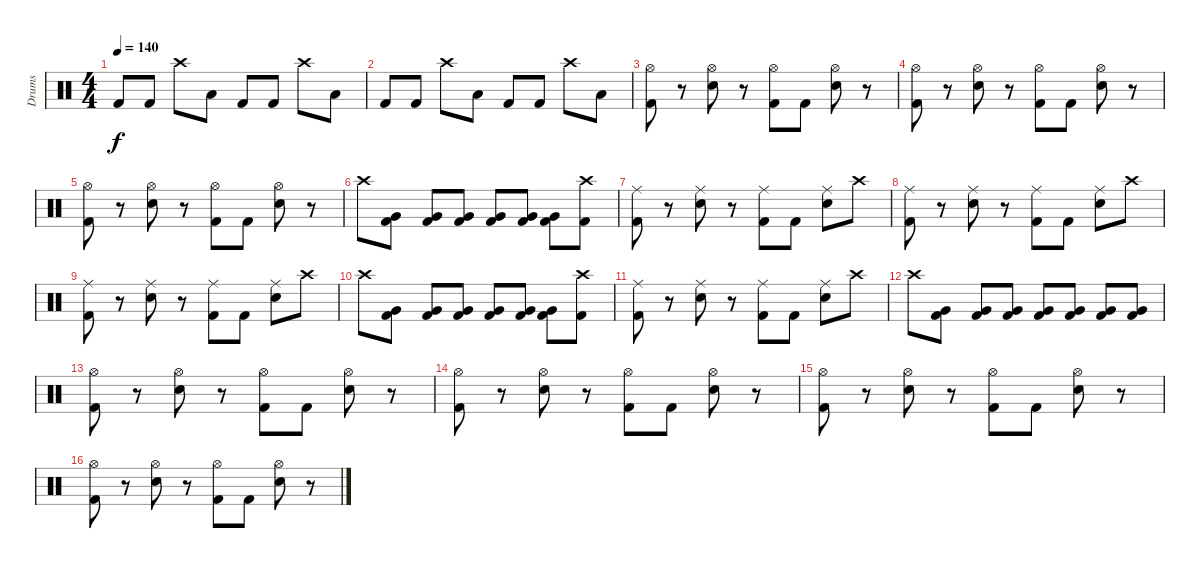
\track ("Drums" "Drums") {instrument percussion}
\staff {score}
\articulation defaults
\ts (4 4)
\tempo 140
\clef neutral
\ks c "Kick (hit) 2".8{dy f} "Kick (hit) 2".8 "Crash high (hit)".8 "Low Tom (hit)".8 "Kick (hit) 2".8 "Kick (hit) 2".8 "Crash high (hit)".8 "Low Tom (hit)".8
|
"Kick (hit) 2".8 "Kick (hit) 2".8 "Crash high (hit)".8 "Low Tom (hit)".8 "Kick (hit) 2".8 "Kick (hit) 2".8 "Crash high (hit)".8 "Low Tom (hit)".8 |
("Hi-Hat (open)" "Kick (hit) 2").8 r.8 ("Hi-Hat (open)" "Snare (hit) 2").8 r.8 ("Hi-Hat (open)" "Kick (hit) 2").8 "Kick (hit) 2".8 ("Hi-Hat (open)" "Snare (hit) 2").8 r.8 |
("Hi-Hat (open)" "Kick (hit) 2").8 r.8 ("Hi-Hat (open)" "Snare (hit) 2").8 r.8 ("Hi-Hat (open)" "Kick (hit) 2").8 "Kick (hit) 2".8 ("Hi-Hat (open)" "Snare (hit) 2").8 r.8 |
("Hi-Hat (open)" "Kick (hit) 2").8 r.8 ("Hi-Hat (open)" "Snare (hit) 2").8 r.8 ("Hi-Hat (open)" "Kick (hit) 2").8 "Kick (hit) 2".8 ("Hi-Hat (open)" "Snare (hit) 2").8 r.8 |
"Crash high (hit)".8 ("Very Low Tom (hit)" "Kick (hit) 2").8 ("Very Low Tom (hit)" "Kick (hit) 2").8 ("Very Low Tom (hit)" "Kick (hit) 2").8 ("Very Low Tom (hit)" "Kick (hit) 2").8 ("Very Low Tom (hit)" "Kick (hit) 2").8 ("Very Low Tom (hit)" "Kick (hit) 2").8 ("Crash high (hit)" "Kick (hit) 2").8 |
("Ride (middle)" "Kick (hit) 2").8 r.8 ("Ride (middle)" "Snare (hit) 2").8 r.8 ("Ride (middle)" "Kick (hit) 2").8 "Kick (hit) 2".8 ("Ride (middle)" "Snare (hit) 2").8 "Crash high (hit)".8 |
("Ride (middle)" "Kick (hit) 2").8 r.8 ("Ride (middle)" "Snare (hit) 2").8 r.8 ("Ride (middle)" "Kick (hit) 2").8 "Kick (hit) 2".8 ("Ride (middle)" "Snare (hit) 2").8 "Crash high (hit)".8 |
("Ride (middle)" "Kick (hit) 2").8 r.8 ("Ride (middle)" "Snare (hit) 2").8 r.8 ("Ride (middle)" "Kick (hit) 2").8 "Kick (hit) 2".8 ("Ride (middle)" "Snare (hit) 2").8 "Crash high (hit)".8 |
"Crash high (hit)".8 ("Very Low Tom (hit)" "Kick (hit) 2").8 ("Very Low Tom (hit)" "Kick (hit) 2").8 ("Very Low Tom (hit)" "Kick (hit) 2").8 ("Very Low Tom (hit)" "Kick (hit) 2").8 ("Very Low Tom (hit)" "Kick (hit) 2").8 ("Very Low Tom (hit)" "Kick (hit) 2").8 ("Crash high (hit)" "Kick (hit) 2").8 |
("Ride (middle)" "Kick (hit) 2").8 r.8 ("Ride (middle)" "Snare (hit) 2").8 r.8 ("Ride (middle)" "Kick (hit) 2").8 "Kick (hit) 2".8 ("Ride (middle)" "Snare (hit) 2").8 "Crash high (hit)".8 |
"Crash high (hit)".8 ("Very Low Tom (hit)" "Kick (hit) 2").8 ("Very Low Tom (hit)" "Kick (hit) 2").8 ("Very Low Tom (hit)" "Kick (hit) 2").8 ("Very Low Tom (hit)" "Kick (hit) 2").8 ("Very Low Tom (hit)" "Kick (hit) 2").8 ("Very Low Tom (hit)" "Kick (hit) 2").8 ("Very Low Tom (hit)" "Kick (hit) 2").8 |
("Hi-Hat (open)" "Kick (hit) 2").8 r.8 ("Hi-Hat (open)" "Snare (hit) 2").8 r.8 ("Hi-Hat (open)" "Kick (hit) 2").8 "Kick (hit) 2".8 ("Hi-Hat (open)" "Snare (hit) 2").8 r.8 |
("Hi-Hat (open)" "Kick (hit) 2").8 r.8 ("Hi-Hat (open)" "Snare (hit) 2").8 r.8 ("Hi-Hat (open)" "Kick (hit) 2").8 "Kick (hit) 2".8 ("Hi-Hat (open)" "Snare (hit) 2").8 r.8 |
("Hi-Hat (open)" "Kick (hit) 2").8 r.8 ("Hi-Hat (open)" "Snare (hit) 2").8 r.8 ("Hi-Hat (open)" "Kick (hit) 2").8 "Kick (hit) 2".8 ("Hi-Hat (open)" "Snare (hit) 2").8 r.8 |
("Hi-Hat (open)" "Kick (hit) 2").8 r.8 ("Hi-Hat (open)" "Snare (hit) 2").8 r.8 ("Hi-Hat (open)" "Kick (hit) 2").8 "Kick (hit) 2".8 ("Hi-Hat (open)" "Snare (hit) 2").8 r.8
